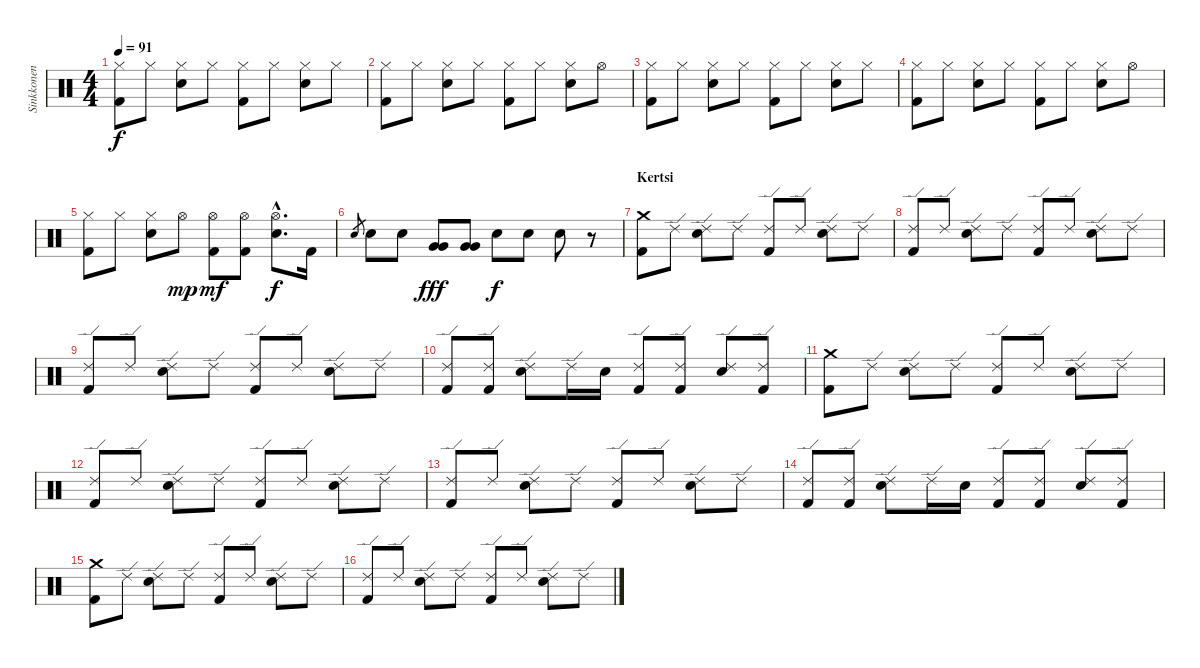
\track ("Sinkkonen" "Sinkkonen") {instrument percussion}
\staff {score}
\articulation defaults
\ts (4 4)
\tempo 91
\clef neutral
\ks c
("Kick (hit) 2" "Hi-Hat (closed)").8{dy f} "Hi-Hat (closed)".8 ("Hi-Hat (closed)" "Snare (hit) 2").8 "Hi-Hat (closed)".8 ("Kick (hit) 2" "Hi-Hat (closed)").8 "Hi-Hat (closed)".8 ("Hi-Hat (closed)" "Snare (hit) 2").8 "Hi-Hat (closed)".8 |
("Kick (hit) 2" "Hi-Hat (closed)").8 "Hi-Hat (closed)".8 ("Hi-Hat (closed)" "Snare (hit) 2").8 "Hi-Hat (closed)".8 ("Kick (hit) 2" "Hi-Hat (closed)").8 "Hi-Hat (closed)".8 ("Hi-Hat (closed)" "Snare (hit) 2").8 "Hi-Hat (open)".8 |
("Kick (hit) 2" "Hi-Hat (closed)").8 "Hi-Hat (closed)".8 ("Hi-Hat (closed)" "Snare (hit) 2").8 "Hi-Hat (closed)".8 ("Kick (hit) 2" "Hi-Hat (closed)").8 "Hi-Hat (closed)".8 ("Hi-Hat (closed)" "Snare (hit) 2").8 "Hi-Hat (closed)".8 |
("Kick (hit) 2" "Hi-Hat (closed)").8 "Hi-Hat (closed)".8 ("Hi-Hat (closed)" "Snare (hit) 2").8 "Hi-Hat (closed)".8 ("Kick (hit) 2" "Hi-Hat (closed)").8 "Hi-Hat (closed)".8 ("Hi-Hat (closed)" "Snare (hit) 2").8 "Hi-Hat (open)".8 |
("Kick (hit) 2" "Hi-Hat (closed)").8 "Hi-Hat (closed)".8 ("Hi-Hat (closed)" "Snare (hit) 2").8 "Hi-Hat (open)".8{dy mp} ("Kick (hit) 2" "Hi-Hat (open)").8{dy mf} ("Kick (hit) 2" "Hi-Hat (open)").8 ("Hi-Hat (open)"{hac} "Snare (hit) 2"{hac}).8{d dy f} "Kick (hit) 2".16 |
"Snare (hit) 2".8{gr} "Snare (hit) 2".8 "Snare (hit) 2".8 ("Very Low Tom (hit)" "Very Low Tom (hit)").8{dy fff} ("Very Low Tom (hit)" "Very Low Tom (hit)").8 "Snare (hit) 2".8{dy f} "Snare (hit) 2".8 "Snare (hit) 2".8 r.8 |
\section ("" "Kertsi")
("Kick (hit) 2" "Crash medium (hit)").8 "Ride (edge) 2".8 ("Ride (edge) 2" "Snare (hit) 2").8 "Ride (edge) 2".8 ("Kick (hit) 2" "Ride (edge) 2").8 "Ride (edge) 2".8 ("Ride (edge) 2" "Snare (hit) 2").8 "Ride (edge) 2".8 |
("Kick (hit) 2" "Ride (edge) 2").8 "Ride (edge) 2".8 ("Ride (edge) 2" "Snare (hit) 2").8 "Ride (edge) 2".8 ("Kick (hit) 2" "Ride (edge) 2").8 "Ride (edge) 2".8 ("Ride (edge) 2" "Snare (hit) 2").8 "Ride (edge) 2".8 |
("Kick (hit) 2" "Ride (edge) 2").8 "Ride (edge) 2".8 ("Ride (edge) 2" "Snare (hit) 2").8 "Ride (edge) 2".8 ("Kick (hit) 2" "Ride (edge) 2").8 "Ride (edge) 2".8 ("Ride (edge) 2" "Snare (hit) 2").8 "Ride (edge) 2".8 |
("Kick (hit) 2" "Ride (edge) 2").8 ("Kick (hit) 2" "Ride (edge) 2").8 ("Ride (edge) 2" "Snare (hit) 2").8 "Ride (edge) 2".16 "Snare (hit) 2".16 ("Kick (hit) 2" "Ride (edge) 2").8 ("Kick (hit) 2" "Ride (edge) 2").8 ("Ride (edge) 2" "Snare (hit) 2").8 ("Kick (hit) 2" "Ride (edge) 2").8 |
("Kick (hit) 2" "Crash medium (hit)").8 "Ride (edge) 2".8 ("Ride (edge) 2" "Snare (hit) 2").8 "Ride (edge) 2".8 ("Kick (hit) 2" "Ride (edge) 2").8 "Ride (edge) 2".8 ("Ride (edge) 2" "Snare (hit) 2").8 "Ride (edge) 2".8 |
("Kick (hit) 2" "Ride (edge) 2").8 "Ride (edge) 2".8 ("Ride (edge) 2" "Snare (hit) 2").8 "Ride (edge) 2".8 ("Kick (hit) 2" "Ride (edge) 2").8 "Ride (edge) 2".8 ("Ride (edge) 2" "Snare (hit) 2").8 "Ride (edge) 2".8 |
("Kick (hit) 2" "Ride (edge) 2").8 "Ride (edge) 2".8 ("Ride (edge) 2" "Snare (hit) 2").8 "Ride (edge) 2".8 ("Kick (hit) 2" "Ride (edge) 2").8 "Ride (edge) 2".8 ("Ride (edge) 2" "Snare (hit) 2").8 "Ride (edge) 2".8 |
("Kick (hit) 2" "Ride (edge) 2").8 ("Kick (hit) 2" "Ride (edge) 2").8 ("Ride (edge) 2" "Snare (hit) 2").8 "Ride (edge) 2".16 "Snare (hit) 2".16 ("Kick (hit) 2" "Ride (edge) 2").8 ("Kick (hit) 2" "Ride (edge) 2").8 ("Ride (edge) 2" "Snare (hit) 2").8 ("Kick (hit) 2" "Ride (edge) 2").8 |
("Kick (hit) 2" "Crash medium (hit)").8 "Ride (edge) 2".8 ("Ride (edge) 2" "Snare (hit) 2").8 "Ride (edge) 2".8 ("Kick (hit) 2" "Ride (edge) 2").8 "Ride (edge) 2".8 ("Ride (edge) 2" "Snare (hit) 2").8 "Ride (edge) 2".8 |
("Kick (hit) 2" "Ride (edge) 2").8 "Ride (edge) 2".8 ("Ride (edge) 2" "Snare (hit) 2").8 "Ride (edge) 2".8 ("Kick (hit) 2" "Ride (edge) 2").8 "Ride (edge) 2".8 ("Ride (edge) 2" "Snare (hit) 2").8 "Ride (edge) 2".8
